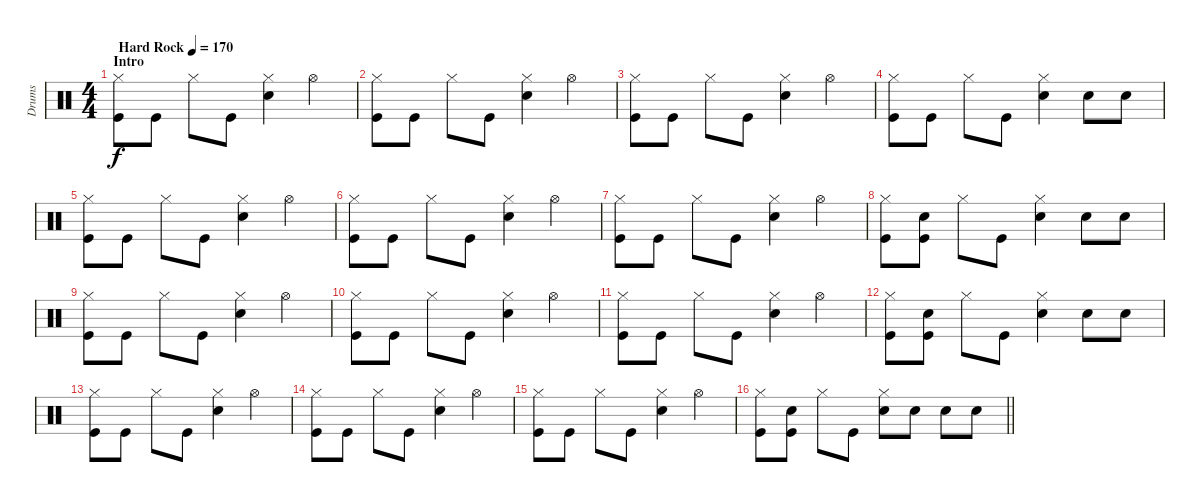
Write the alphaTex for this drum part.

\track ("Drums" "Drums") {instrument percussion}
\staff {score}
\articulation defaults
\ts (4 4)
\section ("" "Intro")
\tempo (170 "Hard Rock")
\clef neutral
\ks c
("Hi-Hat (closed)" "Kick (hit)").8{dy f} "Kick (hit)".8 "Hi-Hat (closed)".8 "Kick (hit)".8 ("Hi-Hat (closed)" "Snare (hit) 2").4 "Hi-Hat (open)".4 |
("Hi-Hat (closed)" "Kick (hit)").8 "Kick (hit)".8 "Hi-Hat (closed)".8 "Kick (hit)".8 ("Hi-Hat (closed)" "Snare (hit) 2").4 "Hi-Hat (open)".4 |
("Hi-Hat (closed)" "Kick (hit)").8 "Kick (hit)".8 "Hi-Hat (closed)".8 "Kick (hit)".8 ("Hi-Hat (closed)" "Snare (hit) 2").4 "Hi-Hat (open)".4 |
("Hi-Hat (closed)" "Kick (hit)").8 "Kick (hit)".8 "Hi-Hat (closed)".8 "Kick (hit)".8 ("Hi-Hat (closed)" "Snare (hit) 2").4 "Snare (hit) 2".8 "Snare (hit) 2".8 |
("Hi-Hat (closed)" "Kick (hit)").8 "Kick (hit)".8 "Hi-Hat (closed)".8 "Kick (hit)".8 ("Hi-Hat (closed)" "Snare (hit) 2").4 "Hi-Hat (open)".4 |
("Hi-Hat (closed)" "Kick (hit)").8 "Kick (hit)".8 "Hi-Hat (closed)".8 "Kick (hit)".8 ("Hi-Hat (closed)" "Snare (hit) 2").4 "Hi-Hat (open)".4 |
("Hi-Hat (closed)" "Kick (hit)").8 "Kick (hit)".8 "Hi-Hat (closed)".8 "Kick (hit)".8 ("Hi-Hat (closed)" "Snare (hit) 2").4 "Hi-Hat (open)".4 |
("Hi-Hat (closed)" "Kick (hit)").8 ("Kick (hit)" "Snare (hit) 2").8 "Hi-Hat (closed)".8 "Kick (hit)".8 ("Hi-Hat (closed)" "Snare (hit) 2").4 "Snare (hit) 2".8 "Snare (hit) 2".8 |
("Hi-Hat (closed)" "Kick (hit)").8 "Kick (hit)".8 "Hi-Hat (closed)".8 "Kick (hit)".8 ("Hi-Hat (closed)" "Snare (hit) 2").4 "Hi-Hat (open)".4 |
("Hi-Hat (closed)" "Kick (hit)").8 "Kick (hit)".8 "Hi-Hat (closed)".8 "Kick (hit)".8 ("Hi-Hat (closed)" "Snare (hit) 2").4 "Hi-Hat (open)".4 |
("Hi-Hat (closed)" "Kick (hit)").8 "Kick (hit)".8 "Hi-Hat (closed)".8 "Kick (hit)".8 ("Hi-Hat (closed)" "Snare (hit) 2").4 "Hi-Hat (open)".4 |
("Hi-Hat (closed)" "Kick (hit)").8 ("Kick (hit)" "Snare (hit) 2").8 "Hi-Hat (closed)".8 "Kick (hit)".8 ("Hi-Hat (closed)" "Snare (hit) 2").4 "Snare (hit) 2".8 "Snare (hit) 2".8 |
("Hi-Hat (closed)" "Kick (hit)").8 "Kick (hit)".8 "Hi-Hat (closed)".8 "Kick (hit)".8 ("Hi-Hat (closed)" "Snare (hit) 2").4 "Hi-Hat (open)".4 |
("Hi-Hat (closed)" "Kick (hit)").8 "Kick (hit)".8 "Hi-Hat (closed)".8 "Kick (hit)".8 ("Hi-Hat (closed)" "Snare (hit) 2").4 "Hi-Hat (open)".4 |
("Hi-Hat (closed)" "Kick (hit)").8 "Kick (hit)".8 "Hi-Hat (closed)".8 "Kick (hit)".8 ("Hi-Hat (closed)" "Snare (hit) 2").4 "Hi-Hat (open)".4 |
\barLineRight lightlight
("Hi-Hat (closed)" "Kick (hit)").8 ("Kick (hit)" "Snare (hit) 2").8 "Hi-Hat (closed)".8 "Kick (hit)".8 ("Hi-Hat (closed)" "Snare (hit) 2").8 "Snare (hit) 2".8 "Snare (hit) 2".8 "Snare (hit) 2".8
